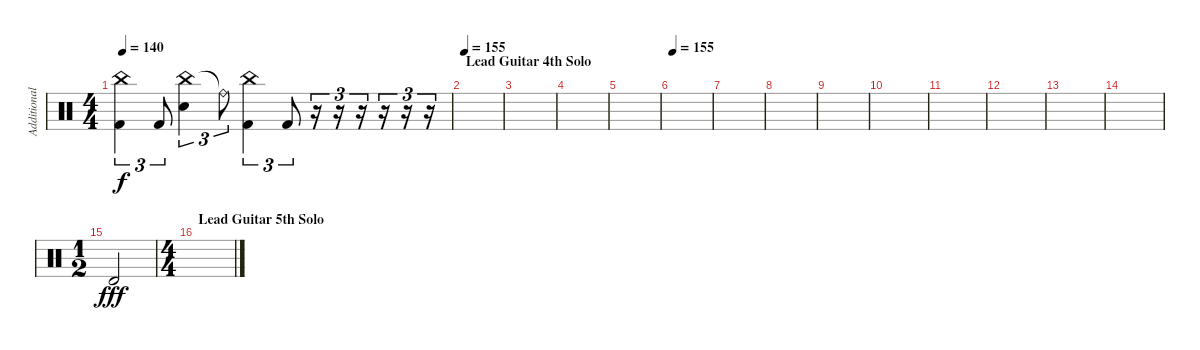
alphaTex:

\track ("Additional Drums" "Additional") {instrument percussion}
\staff {score}
\articulation defaults
\ts (4 4)
\tempo 140
\clef neutral
\ks c
("China (hit)" "Kick (hit) 2").4{tu (3 2) dy f} "Kick (hit) 2".8{tu (3 2)} ("China (hit)" "Electric Snare (hit)").4{tu (3 2)} "Ride (bell)"{t}.8{tu (3 2)} ("China (hit)" "Kick (hit) 2").4{tu (3 2)} "Kick (hit) 2".8{tu (3 2)} r.16{tu (3 2)} r.16{tu (3 2)} r.16{tu (3 2)} r.16{tu (3 2)} r.16{tu (3 2)} r.16{tu (3 2)} |
\section ("" "Lead Guitar 4th Solo")
\tempo 155
|
|
|
|
\tempo 155
|
|
|
|
|
|
|
|
|
\ts (1 2)
"Timbale high (hit)".2{dy fff} |
\ts (4 4)
\section ("" "Lead Guitar 5th Solo")
